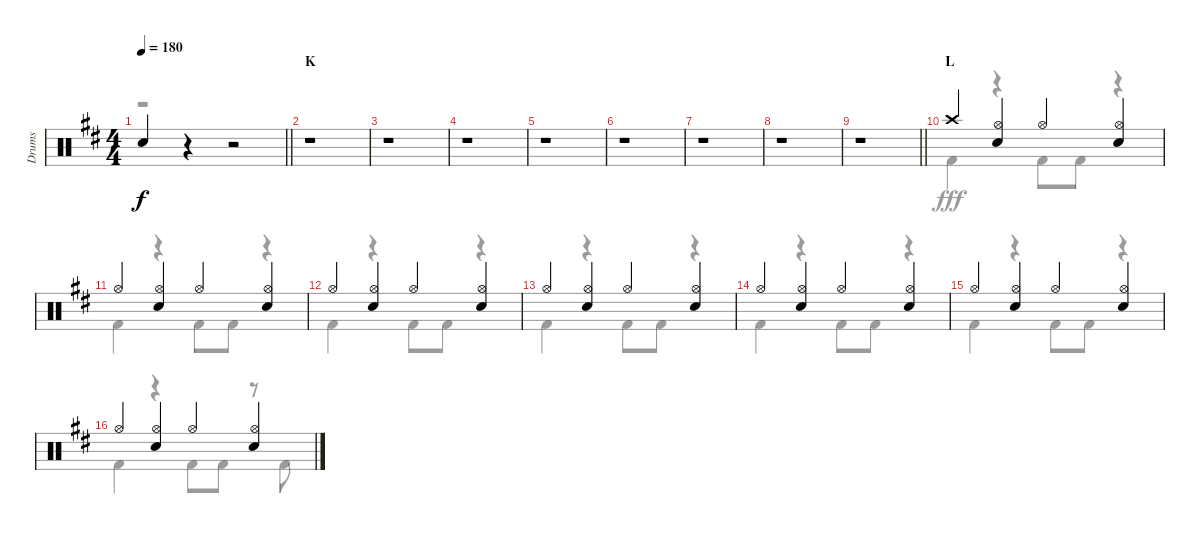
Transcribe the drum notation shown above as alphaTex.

\track ("Drums" "Drums") {instrument percussion}
\staff {score}
\articulation defaults
\voice
\ts (4 4)
\tempo 180
\clef neutral
\barLineRight lightlight
\ks d "Snare (hit) 2".4{dy f}
r.4 r.2 |
\section ("" "K")
r.1 |
r.1 |
r.1 |
r.1 |
r.1 |
r.1 |
r.1 |
\barLineRight lightlight
r.1 |
\section ("" "L")
"Crash high (hit)".4 ("Hi-Hat (open)" "Snare (hit) 2").4 "Hi-Hat (open)".4 ("Hi-Hat (open)" "Snare (hit) 2").4 |
"Hi-Hat (open)".4 ("Hi-Hat (open)" "Snare (hit) 2").4 "Hi-Hat (open)".4 ("Hi-Hat (open)" "Snare (hit) 2").4 |
"Hi-Hat (open)".4 ("Hi-Hat (open)" "Snare (hit) 2").4 "Hi-Hat (open)".4 ("Hi-Hat (open)" "Snare (hit) 2").4 |
"Hi-Hat (open)".4 ("Hi-Hat (open)" "Snare (hit) 2").4 "Hi-Hat (open)".4 ("Hi-Hat (open)" "Snare (hit) 2").4 |
"Hi-Hat (open)".4 ("Hi-Hat (open)" "Snare (hit) 2").4 "Hi-Hat (open)".4 ("Hi-Hat (open)" "Snare (hit) 2").4 |
"Hi-Hat (open)".4 ("Hi-Hat (open)" "Snare (hit) 2").4 "Hi-Hat (open)".4 ("Hi-Hat (open)" "Snare (hit) 2").4 |
"Hi-Hat (open)".4 ("Hi-Hat (open)" "Snare (hit) 2").4 "Hi-Hat (open)".4 ("Hi-Hat (open)" "Snare (hit) 2").4
\voice
\clef neutral
\ottava regular
\simile none
\barLineRight lightlight
\ks d
r.1{dy fff} |
r.1 |
r.1 |
r.1 |
r.1 |
r.1 |
r.1 |
r.1 |
\barLineRight lightlight
r.1 |
"Kick (hit) 2".4 r.4 "Kick (hit) 2".8 "Kick (hit) 2".8 r.4 |
"Kick (hit) 2".4 r.4 "Kick (hit) 2".8 "Kick (hit) 2".8 r.4 |
"Kick (hit) 2".4 r.4 "Kick (hit) 2".8 "Kick (hit) 2".8 r.4 |
"Kick (hit) 2".4 r.4 "Kick (hit) 2".8 "Kick (hit) 2".8 r.4 |
"Kick (hit) 2".4 r.4 "Kick (hit) 2".8 "Kick (hit) 2".8 r.4 |
"Kick (hit) 2".4 r.4 "Kick (hit) 2".8 "Kick (hit) 2".8 r.4 |
"Kick (hit) 2".4 r.4 "Kick (hit) 2".8 "Kick (hit) 2".8 r.8 "Kick (hit) 2".8
